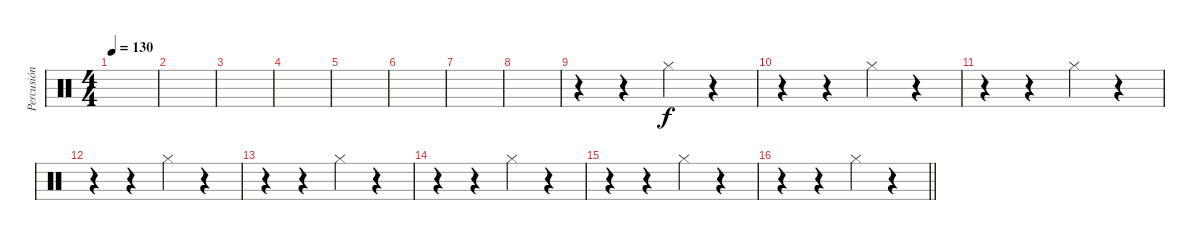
\track ("Percusión" "Percusión") {instrument percussion}
\staff {score}
\articulation defaults
\ts (4 4)
\tempo 130
\clef neutral
\ks c
|
|
|
|
|
|
|
|
r.4 r.4 "Hi-Hat (closed)".4 r.4 |
r.4 r.4 "Hi-Hat (closed)".4 r.4 |
r.4 r.4 "Hi-Hat (closed)".4 r.4 |
r.4 r.4 "Hi-Hat (closed)".4 r.4 |
r.4 r.4 "Hi-Hat (closed)".4 r.4 |
r.4 r.4 "Hi-Hat (closed)".4 r.4 |
r.4 r.4 "Hi-Hat (closed)".4 r.4 |
\barLineRight lightlight
r.4 r.4 "Hi-Hat (closed)".4 r.4
